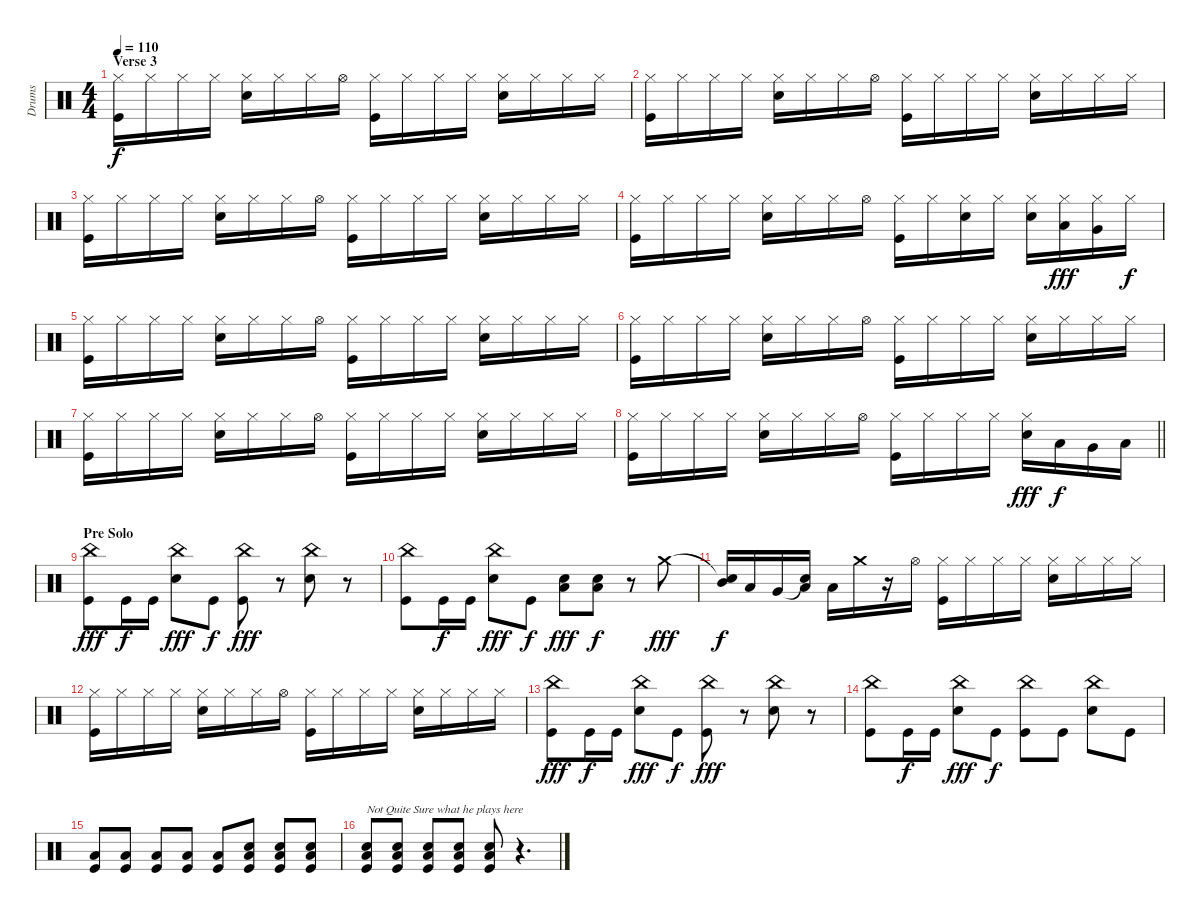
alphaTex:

\track ("Drums" "Drums") {instrument percussion}
\staff {score}
\articulation defaults
\ts (4 4)
\section ("" "Verse 3")
\tempo 110
\clef neutral
\ks c
("Hi-Hat (closed)" "Kick (hit)").16{dy f} "Hi-Hat (closed)".16 "Hi-Hat (closed)".16 "Hi-Hat (closed)".16 ("Hi-Hat (closed)" "Snare (hit) 2").16 "Hi-Hat (closed)".16 "Hi-Hat (closed)".16 "Hi-Hat (open)".16 ("Hi-Hat (closed)" "Kick (hit)").16 "Hi-Hat (closed)".16 "Hi-Hat (closed)".16 "Hi-Hat (closed)".16 ("Hi-Hat (closed)" "Snare (hit) 2").16 "Hi-Hat (closed)".16 "Hi-Hat (closed)".16 "Hi-Hat (closed)".16 |
("Hi-Hat (closed)" "Kick (hit)").16 "Hi-Hat (closed)".16 "Hi-Hat (closed)".16 "Hi-Hat (closed)".16 ("Hi-Hat (closed)" "Snare (hit) 2").16 "Hi-Hat (closed)".16 "Hi-Hat (closed)".16 "Hi-Hat (open)".16 ("Hi-Hat (closed)" "Kick (hit)").16 "Hi-Hat (closed)".16 "Hi-Hat (closed)".16 "Hi-Hat (closed)".16 ("Hi-Hat (closed)" "Snare (hit) 2").16 "Hi-Hat (closed)".16 "Hi-Hat (closed)".16 "Hi-Hat (closed)".16 |
("Hi-Hat (closed)" "Kick (hit)").16 "Hi-Hat (closed)".16 "Hi-Hat (closed)".16 "Hi-Hat (closed)".16 ("Hi-Hat (closed)" "Snare (hit) 2").16 "Hi-Hat (closed)".16 "Hi-Hat (closed)".16 "Hi-Hat (open)".16 ("Hi-Hat (closed)" "Kick (hit)").16 "Hi-Hat (closed)".16 "Hi-Hat (closed)".16 "Hi-Hat (closed)".16 ("Hi-Hat (closed)" "Snare (hit) 2").16 "Hi-Hat (closed)".16 "Hi-Hat (closed)".16 "Hi-Hat (closed)".16 |
("Hi-Hat (closed)" "Kick (hit)").16 "Hi-Hat (closed)".16 "Hi-Hat (closed)".16 "Hi-Hat (closed)".16 ("Hi-Hat (closed)" "Snare (hit) 2").16 "Hi-Hat (closed)".16 "Hi-Hat (closed)".16 "Hi-Hat (open)".16 ("Hi-Hat (closed)" "Kick (hit)").16 "Hi-Hat (closed)".16 ("Hi-Hat (closed)" "Snare (hit) 2").16 "Hi-Hat (closed)".16 ("Hi-Hat (closed)" "Snare (hit) 2").16 ("Hi-Hat (closed)" "Low Tom (hit)").16{dy fff} ("Hi-Hat (closed)" "Very Low Tom (hit)").16 "Hi-Hat (closed)".16{dy f} |
("Hi-Hat (closed)" "Kick (hit)").16 "Hi-Hat (closed)".16 "Hi-Hat (closed)".16 "Hi-Hat (closed)".16 ("Hi-Hat (closed)" "Snare (hit) 2").16 "Hi-Hat (closed)".16 "Hi-Hat (closed)".16 "Hi-Hat (open)".16 ("Hi-Hat (closed)" "Kick (hit)").16 "Hi-Hat (closed)".16 "Hi-Hat (closed)".16 "Hi-Hat (closed)".16 ("Hi-Hat (closed)" "Snare (hit) 2").16 "Hi-Hat (closed)".16 "Hi-Hat (closed)".16 "Hi-Hat (closed)".16 |
("Hi-Hat (closed)" "Kick (hit)").16 "Hi-Hat (closed)".16 "Hi-Hat (closed)".16 "Hi-Hat (closed)".16 ("Hi-Hat (closed)" "Snare (hit) 2").16 "Hi-Hat (closed)".16 "Hi-Hat (closed)".16 "Hi-Hat (open)".16 ("Hi-Hat (closed)" "Kick (hit)").16 "Hi-Hat (closed)".16 "Hi-Hat (closed)".16 "Hi-Hat (closed)".16 ("Hi-Hat (closed)" "Snare (hit) 2").16 "Hi-Hat (closed)".16 "Hi-Hat (closed)".16 "Hi-Hat (closed)".16 |
("Hi-Hat (closed)" "Kick (hit)").16 "Hi-Hat (closed)".16 "Hi-Hat (closed)".16 "Hi-Hat (closed)".16 ("Hi-Hat (closed)" "Snare (hit) 2").16 "Hi-Hat (closed)".16 "Hi-Hat (closed)".16 "Hi-Hat (open)".16 ("Hi-Hat (closed)" "Kick (hit)").16 "Hi-Hat (closed)".16 "Hi-Hat (closed)".16 "Hi-Hat (closed)".16 ("Hi-Hat (closed)" "Snare (hit) 2").16 "Hi-Hat (closed)".16 "Hi-Hat (closed)".16 "Hi-Hat (closed)".16 |
\barLineRight lightlight
("Hi-Hat (closed)" "Kick (hit)").16 "Hi-Hat (closed)".16 "Hi-Hat (closed)".16 "Hi-Hat (closed)".16 ("Hi-Hat (closed)" "Snare (hit) 2").16 "Hi-Hat (closed)".16 "Hi-Hat (closed)".16 "Hi-Hat (open)".16 ("Hi-Hat (closed)" "Kick (hit)").16 "Hi-Hat (closed)".16 "Hi-Hat (closed)".16 "Hi-Hat (closed)".16 ("Hi-Hat (closed)" "Snare (hit) 2").16{dy fff} "Low Tom (hit)".16{dy f} "Very Low Tom (hit)".16 "Low Floor Tom (hit)".16 |
\section ("" "Pre Solo")
("China (hit)" "Kick (hit)").8{dy fff} "Kick (hit)".16{dy f} "Kick (hit)".16 ("China (hit)" "Snare (hit) 2").8{dy fff} "Kick (hit)".8{dy f} ("China (hit)" "Kick (hit)").8{dy fff} r.8 ("China (hit)" "Snare (hit) 2").8 r.8 |
("China (hit)" "Kick (hit)").8 "Kick (hit)".16{dy f} "Kick (hit)".16 ("China (hit)" "Snare (hit) 2").8{dy fff} "Kick (hit)".8{dy f} ("Low Floor Tom (hit)" "Snare (hit) 2").8{dy fff} ("Low Floor Tom (hit)" "Snare (hit) 2").8{dy f} r.8 "Crash medium (hit)".8{dy fff} |
("Snare (hit)"{t} "Mid Tom (hit)").16{dy f} "Low Tom (hit)".16 "Very Low Tom (hit)".16 ("Snare (hit)"{t} "Low Floor Tom (hit)").16 "Low Floor Tom (hit)".16 "Crash medium (hit)".16 r.16 "Hi-Hat (open)".16 ("Hi-Hat (closed)" "Kick (hit)").16 "Hi-Hat (closed)".16 "Hi-Hat (closed)".16 "Hi-Hat (closed)".16 ("Hi-Hat (closed)" "Snare (hit) 2").16 "Hi-Hat (closed)".16 "Hi-Hat (closed)".16 "Hi-Hat (closed)".16 |
("Hi-Hat (closed)" "Kick (hit)").16 "Hi-Hat (closed)".16 "Hi-Hat (closed)".16 "Hi-Hat (closed)".16 ("Hi-Hat (closed)" "Snare (hit) 2").16 "Hi-Hat (closed)".16 "Hi-Hat (closed)".16 "Hi-Hat (open)".16 ("Hi-Hat (closed)" "Kick (hit)").16 "Hi-Hat (closed)".16 "Hi-Hat (closed)".16 "Hi-Hat (closed)".16 ("Hi-Hat (closed)" "Snare (hit) 2").16 "Hi-Hat (closed)".16 "Hi-Hat (closed)".16 "Hi-Hat (closed)".16 |
("China (hit)" "Kick (hit)").8{dy fff} "Kick (hit)".16{dy f} "Kick (hit)".16 ("China (hit)" "Snare (hit) 2").8{dy fff} "Kick (hit)".8{dy f} ("China (hit)" "Kick (hit)").8{dy fff} r.8 ("China (hit)" "Snare (hit) 2").8 r.8 |
("China (hit)" "Kick (hit)").8 "Kick (hit)".16{dy f} "Kick (hit)".16 ("China (hit)" "Snare (hit) 2").8{dy fff} "Kick (hit)".8{dy f} ("China (hit)" "Kick (hit)").8 "Kick (hit)".8 ("China (hit)" "Snare (hit) 2").8 "Kick (hit)".8 |
("Low Floor Tom (hit)" "Kick (hit)").8 ("Low Floor Tom (hit)" "Kick (hit)").8 ("Low Floor Tom (hit)" "Kick (hit)").8 ("Low Floor Tom (hit)" "Kick (hit)").8 ("Low Floor Tom (hit)" "Kick (hit)").8 ("Low Floor Tom (hit)" "Snare (hit) 2" "Kick (hit)").8 ("Low Floor Tom (hit)" "Snare (hit) 2" "Kick (hit)").8 ("Low Floor Tom (hit)" "Snare (hit) 2" "Kick (hit)").8 |
("Low Floor Tom (hit)" "Snare (hit) 2" "Kick (hit)").8{txt "Not Quite Sure what he plays here"} ("Low Floor Tom (hit)" "Snare (hit) 2" "Kick (hit)").8 ("Low Floor Tom (hit)" "Snare (hit) 2" "Kick (hit)").8 ("Low Floor Tom (hit)" "Snare (hit) 2" "Kick (hit)").8 ("Low Floor Tom (hit)" "Snare (hit) 2" "Kick (hit)").8 r.4{d}
